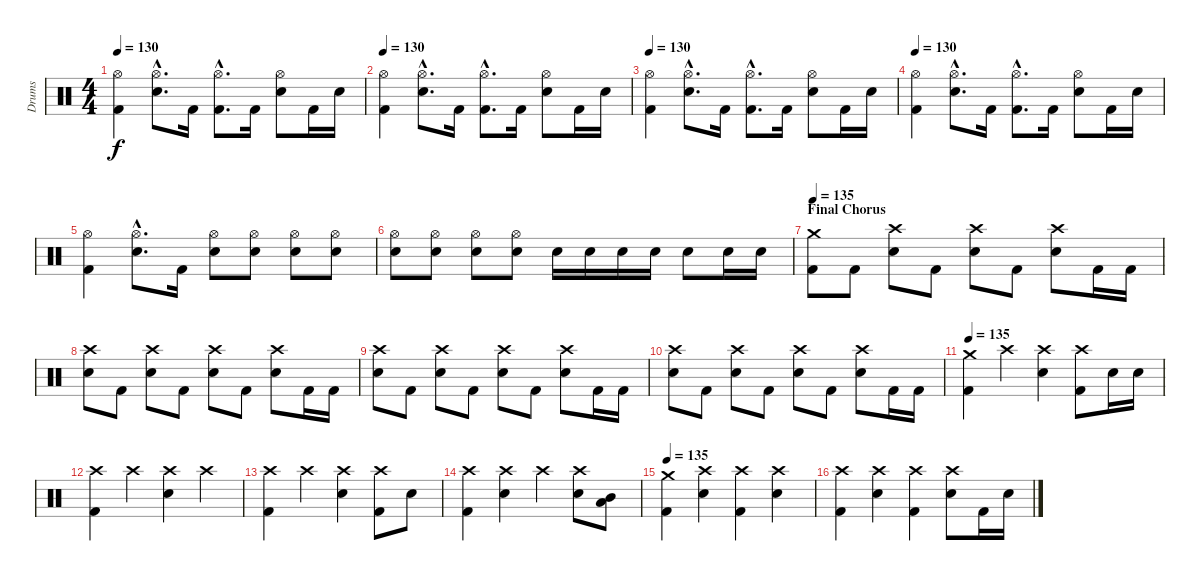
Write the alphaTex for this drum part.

\track ("Drums" "Drums") {instrument percussion}
\staff {score}
\articulation defaults
\ts (4 4)
\tempo 130
\clef neutral
\ks c
("Hi-Hat (open)" "Kick (hit) 2").4{dy f} ("Hi-Hat (open)"{hac} "Electric Snare (hit)"{hac}).8{d} "Kick (hit) 2".16 ("Hi-Hat (open)"{hac} "Kick (hit) 2"{hac}).8{d} "Kick (hit) 2".16 ("Hi-Hat (open)" "Electric Snare (hit)").8 "Kick (hit) 2".16 "Electric Snare (hit)".16 |
\tempo 130
("Hi-Hat (open)" "Kick (hit) 2").4 ("Hi-Hat (open)"{hac} "Electric Snare (hit)"{hac}).8{d} "Kick (hit) 2".16 ("Hi-Hat (open)"{hac} "Kick (hit) 2"{hac}).8{d} "Kick (hit) 2".16 ("Hi-Hat (open)" "Electric Snare (hit)").8 "Kick (hit) 2".16 "Electric Snare (hit)".16 |
\tempo 130
("Hi-Hat (open)" "Kick (hit) 2").4 ("Hi-Hat (open)"{hac} "Electric Snare (hit)"{hac}).8{d} "Kick (hit) 2".16 ("Hi-Hat (open)"{hac} "Kick (hit) 2"{hac}).8{d} "Kick (hit) 2".16 ("Hi-Hat (open)" "Electric Snare (hit)").8 "Kick (hit) 2".16 "Electric Snare (hit)".16 |
\tempo 130
("Hi-Hat (open)" "Kick (hit) 2").4 ("Hi-Hat (open)"{hac} "Electric Snare (hit)"{hac}).8{d} "Kick (hit) 2".16 ("Hi-Hat (open)"{hac} "Kick (hit) 2"{hac}).8{d} "Kick (hit) 2".16 ("Hi-Hat (open)" "Electric Snare (hit)").8 "Kick (hit) 2".16 "Electric Snare (hit)".16 |
("Hi-Hat (open)" "Kick (hit) 2").4 ("Hi-Hat (open)"{hac} "Electric Snare (hit)"{hac}).8{d} "Kick (hit) 2".16 ("Hi-Hat (open)" "Electric Snare (hit)").8 ("Hi-Hat (open)" "Electric Snare (hit)").8 ("Hi-Hat (open)" "Electric Snare (hit)").8 ("Hi-Hat (open)" "Electric Snare (hit)").8 |
("Hi-Hat (open)" "Electric Snare (hit)").8 ("Hi-Hat (open)" "Electric Snare (hit)").8 ("Hi-Hat (open)" "Electric Snare (hit)").8 ("Hi-Hat (open)" "Electric Snare (hit)").8 "Electric Snare (hit)".16 "Electric Snare (hit)".16 "Electric Snare (hit)".16 "Electric Snare (hit)".16 "Electric Snare (hit)".8 "Electric Snare (hit)".16 "Electric Snare (hit)".16 |
\section ("" "Final Chorus")
\tempo 135
("Crash medium (hit)" "Kick (hit) 2").8 "Kick (hit) 2".8 ("Crash high (hit)" "Electric Snare (hit)").8 "Kick (hit) 2".8 ("Crash high (hit)" "Electric Snare (hit)").8 "Kick (hit) 2".8 ("Crash high (hit)" "Electric Snare (hit)").8 "Kick (hit) 2".16 "Kick (hit) 2".16 |
("Crash high (hit)" "Electric Snare (hit)").8 "Kick (hit) 2".8 ("Crash high (hit)" "Electric Snare (hit)").8 "Kick (hit) 2".8 ("Crash high (hit)" "Electric Snare (hit)").8 "Kick (hit) 2".8 ("Crash high (hit)" "Electric Snare (hit)").8 "Kick (hit) 2".16 "Kick (hit) 2".16 |
("Crash high (hit)" "Electric Snare (hit)").8 "Kick (hit) 2".8 ("Crash high (hit)" "Electric Snare (hit)").8 "Kick (hit) 2".8 ("Crash high (hit)" "Electric Snare (hit)").8 "Kick (hit) 2".8 ("Crash high (hit)" "Electric Snare (hit)").8 "Kick (hit) 2".16 "Kick (hit) 2".16 |
("Crash high (hit)" "Electric Snare (hit)").8 "Kick (hit) 2".8 ("Crash high (hit)" "Electric Snare (hit)").8 "Kick (hit) 2".8 ("Crash high (hit)" "Electric Snare (hit)").8 "Kick (hit) 2".8 ("Crash high (hit)" "Electric Snare (hit)").8 "Kick (hit) 2".16 "Kick (hit) 2".16 |
\tempo 135
("Crash medium (hit)" "Kick (hit) 2").4 "Crash high (hit)".4 ("Crash high (hit)" "Electric Snare (hit)").4 ("Crash high (hit)" "Kick (hit) 2").8 "Electric Snare (hit)".16 "Electric Snare (hit)".16 |
("Crash high (hit)" "Kick (hit) 2").4 "Crash high (hit)".4 ("Crash high (hit)" "Electric Snare (hit)").4 "Crash high (hit)".4 |
("Crash high (hit)" "Kick (hit) 2").4 "Crash high (hit)".4 ("Crash high (hit)" "Electric Snare (hit)").4 ("Crash high (hit)" "Kick (hit) 2").8 "Electric Snare (hit)".8 |
("Crash high (hit)" "Kick (hit) 2").4 ("Crash high (hit)" "Electric Snare (hit)").4 "Crash high (hit)".4 ("Crash high (hit)" "Electric Snare (hit)").8 ("Mid Tom (hit)" "Low Tom (hit)").8 |
\tempo 135
("Crash medium (hit)" "Kick (hit) 2").4 ("Crash high (hit)" "Electric Snare (hit)").4 ("Crash high (hit)" "Kick (hit) 2").4 ("Crash high (hit)" "Electric Snare (hit)").4 |
("Crash high (hit)" "Kick (hit) 2").4 ("Crash high (hit)" "Electric Snare (hit)").4 ("Crash high (hit)" "Kick (hit) 2").4 ("Crash high (hit)" "Electric Snare (hit)").8 "Kick (hit) 2".16 "Electric Snare (hit)".16
